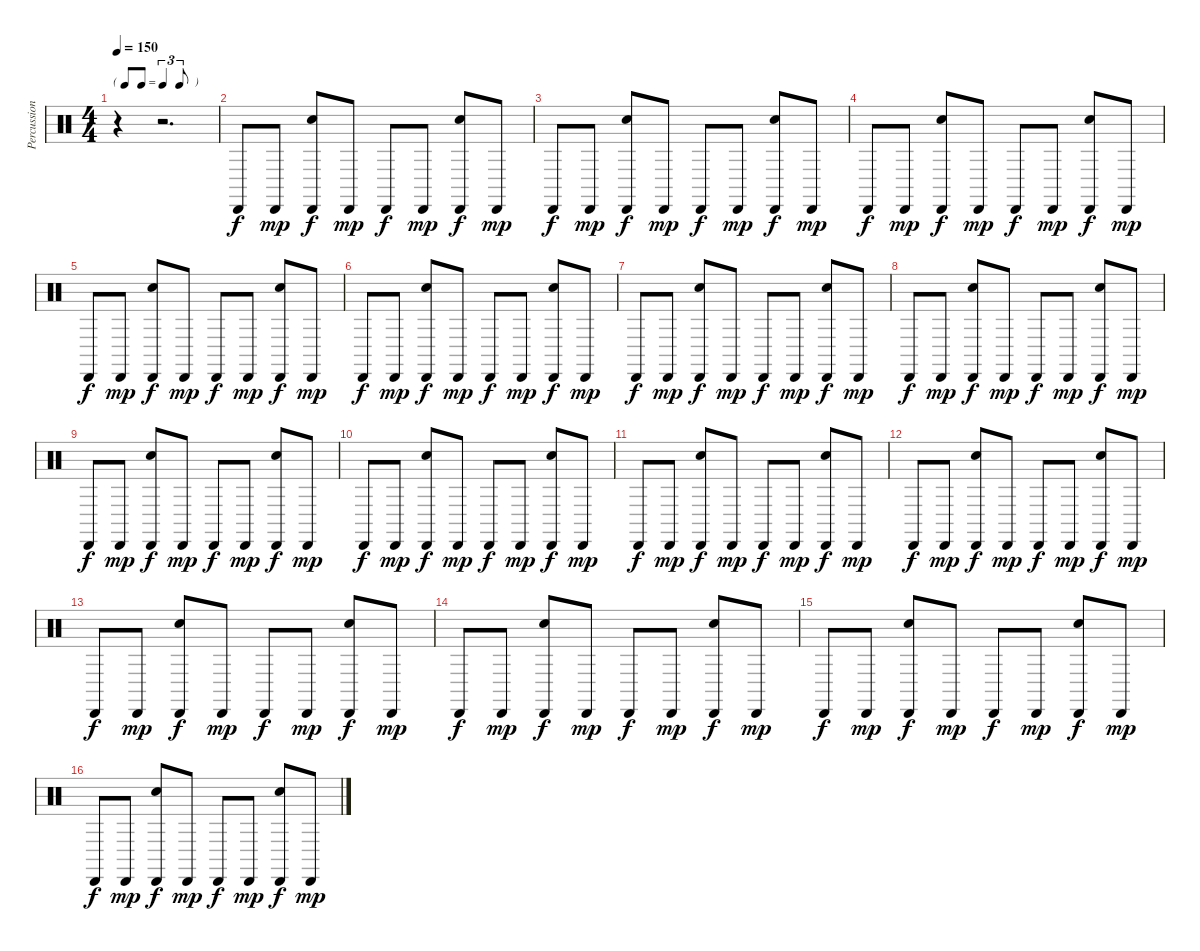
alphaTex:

\track ("Percussion" "Percussion") {instrument percussion}
\staff {score}
\articulation defaults
\ts (4 4)
\tf triplet8th
\tempo 150
\clef neutral
\ks c
r.4{dy f} r.2{d} |
"Cabasa (hit)".8 "Cabasa (hit)".8{dy mp} ("Cabasa (hit)" "Hand Clap (hit)").8{dy f} "Cabasa (hit)".8{dy mp} "Cabasa (hit)".8{dy f} "Cabasa (hit)".8{dy mp} ("Cabasa (hit)" "Hand Clap (hit)").8{dy f} "Cabasa (hit)".8{dy mp} |
"Cabasa (hit)".8{dy f} "Cabasa (hit)".8{dy mp} ("Cabasa (hit)" "Hand Clap (hit)").8{dy f} "Cabasa (hit)".8{dy mp} "Cabasa (hit)".8{dy f} "Cabasa (hit)".8{dy mp} ("Cabasa (hit)" "Hand Clap (hit)").8{dy f} "Cabasa (hit)".8{dy mp} |
"Cabasa (hit)".8{dy f} "Cabasa (hit)".8{dy mp} ("Cabasa (hit)" "Hand Clap (hit)").8{dy f} "Cabasa (hit)".8{dy mp} "Cabasa (hit)".8{dy f} "Cabasa (hit)".8{dy mp} ("Cabasa (hit)" "Hand Clap (hit)").8{dy f} "Cabasa (hit)".8{dy mp} |
"Cabasa (hit)".8{dy f} "Cabasa (hit)".8{dy mp} ("Cabasa (hit)" "Hand Clap (hit)").8{dy f} "Cabasa (hit)".8{dy mp} "Cabasa (hit)".8{dy f} "Cabasa (hit)".8{dy mp} ("Cabasa (hit)" "Hand Clap (hit)").8{dy f} "Cabasa (hit)".8{dy mp} |
"Cabasa (hit)".8{dy f} "Cabasa (hit)".8{dy mp} ("Cabasa (hit)" "Hand Clap (hit)").8{dy f} "Cabasa (hit)".8{dy mp} "Cabasa (hit)".8{dy f} "Cabasa (hit)".8{dy mp} ("Cabasa (hit)" "Hand Clap (hit)").8{dy f} "Cabasa (hit)".8{dy mp} |
"Cabasa (hit)".8{dy f} "Cabasa (hit)".8{dy mp} ("Cabasa (hit)" "Hand Clap (hit)").8{dy f} "Cabasa (hit)".8{dy mp} "Cabasa (hit)".8{dy f} "Cabasa (hit)".8{dy mp} ("Cabasa (hit)" "Hand Clap (hit)").8{dy f} "Cabasa (hit)".8{dy mp} |
"Cabasa (hit)".8{dy f} "Cabasa (hit)".8{dy mp} ("Cabasa (hit)" "Hand Clap (hit)").8{dy f} "Cabasa (hit)".8{dy mp} "Cabasa (hit)".8{dy f} "Cabasa (hit)".8{dy mp} ("Cabasa (hit)" "Hand Clap (hit)").8{dy f} "Cabasa (hit)".8{dy mp} |
"Cabasa (hit)".8{dy f} "Cabasa (hit)".8{dy mp} ("Cabasa (hit)" "Hand Clap (hit)").8{dy f} "Cabasa (hit)".8{dy mp} "Cabasa (hit)".8{dy f} "Cabasa (hit)".8{dy mp} ("Cabasa (hit)" "Hand Clap (hit)").8{dy f} "Cabasa (hit)".8{dy mp} |
"Cabasa (hit)".8{dy f} "Cabasa (hit)".8{dy mp} ("Cabasa (hit)" "Hand Clap (hit)").8{dy f} "Cabasa (hit)".8{dy mp} "Cabasa (hit)".8{dy f} "Cabasa (hit)".8{dy mp} ("Cabasa (hit)" "Hand Clap (hit)").8{dy f} "Cabasa (hit)".8{dy mp} |
"Cabasa (hit)".8{dy f} "Cabasa (hit)".8{dy mp} ("Cabasa (hit)" "Hand Clap (hit)").8{dy f} "Cabasa (hit)".8{dy mp} "Cabasa (hit)".8{dy f} "Cabasa (hit)".8{dy mp} ("Cabasa (hit)" "Hand Clap (hit)").8{dy f} "Cabasa (hit)".8{dy mp} |
"Cabasa (hit)".8{dy f} "Cabasa (hit)".8{dy mp} ("Cabasa (hit)" "Hand Clap (hit)").8{dy f} "Cabasa (hit)".8{dy mp} "Cabasa (hit)".8{dy f} "Cabasa (hit)".8{dy mp} ("Cabasa (hit)" "Hand Clap (hit)").8{dy f} "Cabasa (hit)".8{dy mp} |
"Cabasa (hit)".8{dy f} "Cabasa (hit)".8{dy mp} ("Cabasa (hit)" "Hand Clap (hit)").8{dy f} "Cabasa (hit)".8{dy mp} "Cabasa (hit)".8{dy f} "Cabasa (hit)".8{dy mp} ("Cabasa (hit)" "Hand Clap (hit)").8{dy f} "Cabasa (hit)".8{dy mp} |
"Cabasa (hit)".8{dy f} "Cabasa (hit)".8{dy mp} ("Cabasa (hit)" "Hand Clap (hit)").8{dy f} "Cabasa (hit)".8{dy mp} "Cabasa (hit)".8{dy f} "Cabasa (hit)".8{dy mp} ("Cabasa (hit)" "Hand Clap (hit)").8{dy f} "Cabasa (hit)".8{dy mp} |
"Cabasa (hit)".8{dy f} "Cabasa (hit)".8{dy mp} ("Cabasa (hit)" "Hand Clap (hit)").8{dy f} "Cabasa (hit)".8{dy mp} "Cabasa (hit)".8{dy f} "Cabasa (hit)".8{dy mp} ("Cabasa (hit)" "Hand Clap (hit)").8{dy f} "Cabasa (hit)".8{dy mp} |
"Cabasa (hit)".8{dy f} "Cabasa (hit)".8{dy mp} ("Cabasa (hit)" "Hand Clap (hit)").8{dy f} "Cabasa (hit)".8{dy mp} "Cabasa (hit)".8{dy f} "Cabasa (hit)".8{dy mp} ("Cabasa (hit)" "Hand Clap (hit)").8{dy f} "Cabasa (hit)".8{dy mp}
